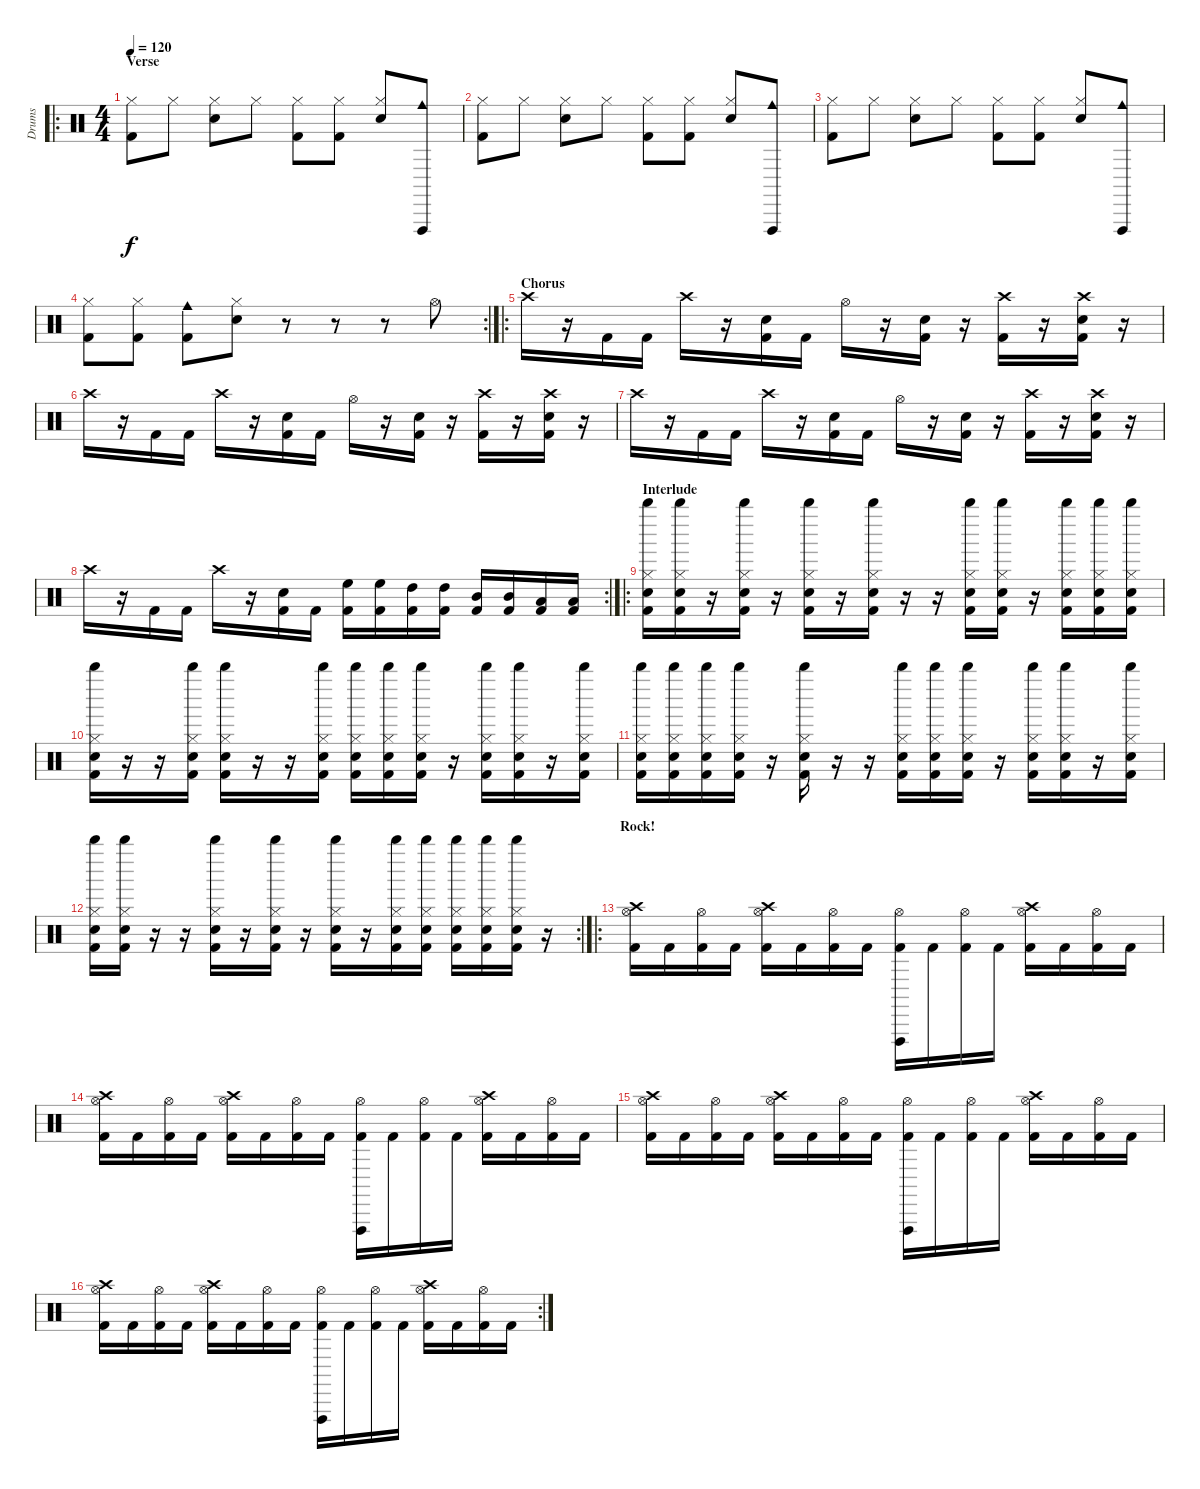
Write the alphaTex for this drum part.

\track ("Drums" "Drums") {instrument percussion}
\staff {score}
\articulation defaults
\ro
\ts (4 4)
\section ("" "Verse")
\tempo 120
\clef neutral
\ks c
("Hi-Hat (closed)" "Kick (hit) 2").8{dy f} "Hi-Hat (closed)".8 ("Hi-Hat (closed)" "Electric Snare (hit)").8 "Hi-Hat (closed)".8 ("Hi-Hat (closed)" "Kick (hit) 2").8 ("Hi-Hat (closed)" "Kick (hit) 2").8 ("Hi-Hat (closed)" "Electric Snare (hit)").8 ("Vibraslap (hit)" "Cowbell medium (hit)").8 |
("Hi-Hat (closed)" "Kick (hit) 2").8 "Hi-Hat (closed)".8 ("Hi-Hat (closed)" "Electric Snare (hit)").8 "Hi-Hat (closed)".8 ("Hi-Hat (closed)" "Kick (hit) 2").8 ("Hi-Hat (closed)" "Kick (hit) 2").8 ("Hi-Hat (closed)" "Electric Snare (hit)").8 ("Vibraslap (hit)" "Cowbell medium (hit)").8 |
("Hi-Hat (closed)" "Kick (hit) 2").8 "Hi-Hat (closed)".8 ("Hi-Hat (closed)" "Electric Snare (hit)").8 "Hi-Hat (closed)".8 ("Hi-Hat (closed)" "Kick (hit) 2").8 ("Hi-Hat (closed)" "Kick (hit) 2").8 ("Hi-Hat (closed)" "Electric Snare (hit)").8 ("Vibraslap (hit)" "Cowbell medium (hit)").8 |
\rc 2
("Hi-Hat (closed)" "Kick (hit) 2").8 ("Hi-Hat (closed)" "Kick (hit) 2").8 ("Cowbell medium (hit)" "Kick (hit) 2").8 ("Hi-Hat (closed)" "Electric Snare (hit)").8 r.8 r.8 r.8 "Hi-Hat (open)".8 |
\ro
\section ("" "Chorus")
"Crash high (hit)".16 r.16 "Kick (hit) 2".16 "Kick (hit) 2".16 "Crash high (hit)".16 r.16 ("Electric Snare (hit)" "Kick (hit) 2").16 "Kick (hit) 2".16 "Hi-Hat (open)".16 r.16 ("Electric Snare (hit)" "Kick (hit) 2").16 r.16 ("Crash high (hit)" "Kick (hit) 2").16 r.16 ("Crash high (hit)" "Electric Snare (hit)" "Kick (hit) 2").16 r.16 |
"Crash high (hit)".16 r.16 "Kick (hit) 2".16 "Kick (hit) 2".16 "Crash high (hit)".16 r.16 ("Electric Snare (hit)" "Kick (hit) 2").16 "Kick (hit) 2".16 "Hi-Hat (open)".16 r.16 ("Electric Snare (hit)" "Kick (hit) 2").16 r.16 ("Crash high (hit)" "Kick (hit) 2").16 r.16 ("Crash high (hit)" "Electric Snare (hit)" "Kick (hit) 2").16 r.16 |
"Crash high (hit)".16 r.16 "Kick (hit) 2".16 "Kick (hit) 2".16 "Crash high (hit)".16 r.16 ("Electric Snare (hit)" "Kick (hit) 2").16 "Kick (hit) 2".16 "Hi-Hat (open)".16 r.16 ("Electric Snare (hit)" "Kick (hit) 2").16 r.16 ("Crash high (hit)" "Kick (hit) 2").16 r.16 ("Crash high (hit)" "Electric Snare (hit)" "Kick (hit) 2").16 r.16 |
\rc 2 "Crash high (hit)".16
r.16 "Kick (hit) 2".16 "Kick (hit) 2".16 "Crash high (hit)".16 r.16 ("Electric Snare (hit)" "Kick (hit) 2").16 "Kick (hit) 2".16 ("High Floor Tom (hit)" "Kick (hit) 2").16 ("High Floor Tom (hit)" "Kick (hit) 2").16 ("High Tom (hit)" "Kick (hit) 2").16 ("High Tom (hit)" "Kick (hit) 2").16 ("Mid Tom (hit)" "Kick (hit) 2").16 ("Mid Tom (hit)" "Kick (hit) 2").16 ("Low Tom (hit)" "Kick (hit) 2").16 ("Low Tom (hit)" "Kick (hit) 2").16 |
\ro
\section ("" "Interlude")
("Whistle high (hit)" "Hi-Hat (closed)" "Snare (hit) 2" "Kick (hit) 2").16 ("Whistle high (hit)" "Hi-Hat (closed)" "Snare (hit) 2" "Kick (hit) 2").16 r.16 ("Whistle high (hit)" "Hi-Hat (closed)" "Snare (hit) 2" "Kick (hit) 2").16 r.16 ("Whistle high (hit)" "Hi-Hat (closed)" "Snare (hit) 2" "Kick (hit) 2").16 r.16 ("Whistle high (hit)" "Hi-Hat (closed)" "Snare (hit) 2" "Kick (hit) 2").16 r.16 r.16 ("Whistle high (hit)" "Hi-Hat (closed)" "Snare (hit) 2" "Kick (hit) 2").16 ("Whistle high (hit)" "Hi-Hat (closed)" "Snare (hit) 2" "Kick (hit) 2").16 r.16 ("Whistle high (hit)" "Hi-Hat (closed)" "Snare (hit) 2" "Kick (hit) 2").16 ("Whistle high (hit)" "Hi-Hat (closed)" "Snare (hit) 2" "Kick (hit) 2").16 ("Whistle high (hit)" "Hi-Hat (closed)" "Snare (hit) 2" "Kick (hit) 2").16 |
("Whistle high (hit)" "Hi-Hat (closed)" "Snare (hit) 2" "Kick (hit) 2").16 r.16 r.16 ("Whistle high (hit)" "Hi-Hat (closed)" "Snare (hit) 2" "Kick (hit) 2").16 ("Whistle high (hit)" "Hi-Hat (closed)" "Snare (hit) 2" "Kick (hit) 2").16 r.16 r.16 ("Whistle high (hit)" "Hi-Hat (closed)" "Snare (hit) 2" "Kick (hit) 2").16 ("Whistle high (hit)" "Hi-Hat (closed)" "Snare (hit) 2" "Kick (hit) 2").16 ("Whistle high (hit)" "Hi-Hat (closed)" "Snare (hit) 2" "Kick (hit) 2").16 ("Whistle high (hit)" "Hi-Hat (closed)" "Snare (hit) 2" "Kick (hit) 2").16 r.16 ("Whistle high (hit)" "Hi-Hat (closed)" "Snare (hit) 2" "Kick (hit) 2").16 ("Whistle high (hit)" "Hi-Hat (closed)" "Snare (hit) 2" "Kick (hit) 2").16 r.16 ("Whistle high (hit)" "Hi-Hat (closed)" "Snare (hit) 2" "Kick (hit) 2").16 |
("Whistle high (hit)" "Hi-Hat (closed)" "Snare (hit) 2" "Kick (hit) 2").16 ("Whistle high (hit)" "Hi-Hat (closed)" "Snare (hit) 2" "Kick (hit) 2").16 ("Whistle high (hit)" "Hi-Hat (closed)" "Snare (hit) 2" "Kick (hit) 2").16 ("Whistle high (hit)" "Hi-Hat (closed)" "Snare (hit) 2" "Kick (hit) 2").16 r.16 ("Whistle high (hit)" "Hi-Hat (closed)" "Snare (hit) 2" "Kick (hit) 2").16 r.16 r.16 ("Whistle high (hit)" "Hi-Hat (closed)" "Snare (hit) 2" "Kick (hit) 2").16 ("Whistle high (hit)" "Hi-Hat (closed)" "Snare (hit) 2" "Kick (hit) 2").16 ("Whistle high (hit)" "Hi-Hat (closed)" "Snare (hit) 2" "Kick (hit) 2").16 r.16 ("Whistle high (hit)" "Hi-Hat (closed)" "Snare (hit) 2" "Kick (hit) 2").16 ("Whistle high (hit)" "Hi-Hat (closed)" "Snare (hit) 2" "Kick (hit) 2").16 r.16 ("Whistle high (hit)" "Hi-Hat (closed)" "Snare (hit) 2" "Kick (hit) 2").16 |
\rc 2
("Whistle high (hit)" "Hi-Hat (closed)" "Snare (hit) 2" "Kick (hit) 2").16 ("Whistle high (hit)" "Hi-Hat (closed)" "Snare (hit) 2" "Kick (hit) 2").16 r.16 r.16 ("Whistle high (hit)" "Hi-Hat (closed)" "Snare (hit) 2" "Kick (hit) 2").16 r.16 ("Whistle high (hit)" "Hi-Hat (closed)" "Snare (hit) 2" "Kick (hit) 2").16 r.16 ("Whistle high (hit)" "Hi-Hat (closed)" "Snare (hit) 2" "Kick (hit) 2").16 r.16 ("Whistle high (hit)" "Hi-Hat (closed)" "Snare (hit) 2" "Kick (hit) 2").16 ("Whistle high (hit)" "Hi-Hat (closed)" "Snare (hit) 2" "Kick (hit) 2").16 ("Whistle high (hit)" "Hi-Hat (closed)" "Snare (hit) 2" "Kick (hit) 2").16 ("Whistle high (hit)" "Hi-Hat (closed)" "Snare (hit) 2" "Kick (hit) 2").16 ("Whistle high (hit)" "Hi-Hat (closed)" "Snare (hit) 2" "Kick (hit) 2").16 r.16 |
\ro
\section ("" "Rock!")
("Crash high (hit)" "Hi-Hat (open)" "Kick (hit) 2").16 "Kick (hit) 2".16 ("Hi-Hat (open)" "Kick (hit) 2").16 "Kick (hit) 2".16 ("Crash high (hit)" "Hi-Hat (open)" "Kick (hit) 2").16 "Kick (hit) 2".16 ("Hi-Hat (open)" "Kick (hit) 2").16 "Kick (hit) 2".16 ("Vibraslap (hit)" "Hi-Hat (open)" "Kick (hit) 2").16 "Kick (hit) 2".16 ("Hi-Hat (open)" "Kick (hit) 2").16 "Kick (hit) 2".16 ("Crash high (hit)" "Hi-Hat (open)" "Kick (hit) 2").16 "Kick (hit) 2".16 ("Hi-Hat (open)" "Kick (hit) 2").16 "Kick (hit) 2".16 |
("Crash high (hit)" "Hi-Hat (open)" "Kick (hit) 2").16 "Kick (hit) 2".16 ("Hi-Hat (open)" "Kick (hit) 2").16 "Kick (hit) 2".16 ("Crash high (hit)" "Hi-Hat (open)" "Kick (hit) 2").16 "Kick (hit) 2".16 ("Hi-Hat (open)" "Kick (hit) 2").16 "Kick (hit) 2".16 ("Vibraslap (hit)" "Hi-Hat (open)" "Kick (hit) 2").16 "Kick (hit) 2".16 ("Hi-Hat (open)" "Kick (hit) 2").16 "Kick (hit) 2".16 ("Crash high (hit)" "Hi-Hat (open)" "Kick (hit) 2").16 "Kick (hit) 2".16 ("Hi-Hat (open)" "Kick (hit) 2").16 "Kick (hit) 2".16 |
("Crash high (hit)" "Hi-Hat (open)" "Kick (hit) 2").16 "Kick (hit) 2".16 ("Hi-Hat (open)" "Kick (hit) 2").16 "Kick (hit) 2".16 ("Crash high (hit)" "Hi-Hat (open)" "Kick (hit) 2").16 "Kick (hit) 2".16 ("Hi-Hat (open)" "Kick (hit) 2").16 "Kick (hit) 2".16 ("Vibraslap (hit)" "Hi-Hat (open)" "Kick (hit) 2").16 "Kick (hit) 2".16 ("Hi-Hat (open)" "Kick (hit) 2").16 "Kick (hit) 2".16 ("Crash high (hit)" "Hi-Hat (open)" "Kick (hit) 2").16 "Kick (hit) 2".16 ("Hi-Hat (open)" "Kick (hit) 2").16 "Kick (hit) 2".16 |
\rc 2
("Crash high (hit)" "Hi-Hat (open)" "Kick (hit) 2").16 "Kick (hit) 2".16 ("Hi-Hat (open)" "Kick (hit) 2").16 "Kick (hit) 2".16 ("Crash high (hit)" "Hi-Hat (open)" "Kick (hit) 2").16 "Kick (hit) 2".16 ("Hi-Hat (open)" "Kick (hit) 2").16 "Kick (hit) 2".16 ("Vibraslap (hit)" "Hi-Hat (open)" "Kick (hit) 2").16 "Kick (hit) 2".16 ("Hi-Hat (open)" "Kick (hit) 2").16 "Kick (hit) 2".16 ("Crash high (hit)" "Hi-Hat (open)" "Kick (hit) 2").16 "Kick (hit) 2".16 ("Hi-Hat (open)" "Kick (hit) 2").16 "Kick (hit) 2".16
